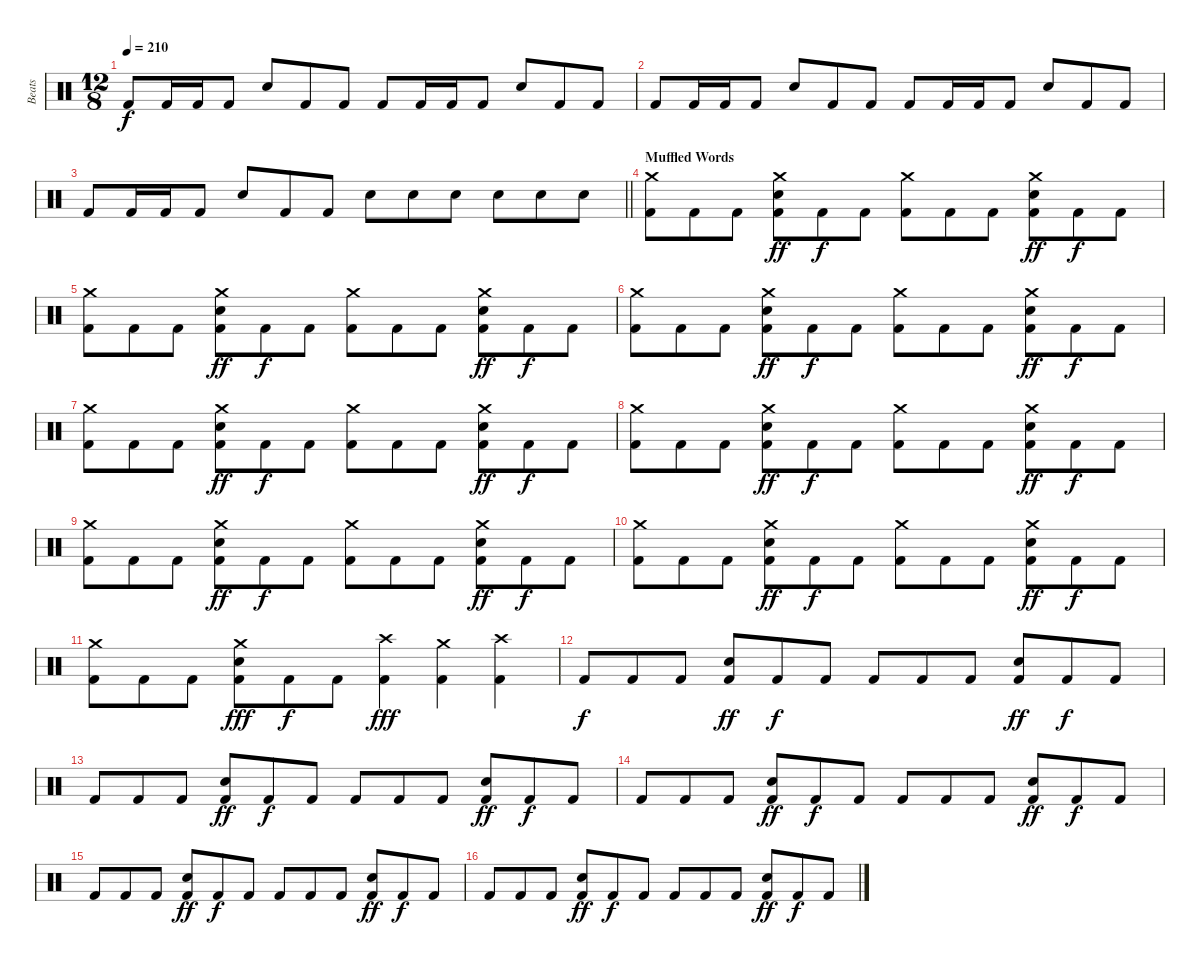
\track ("Beats" "Beats") {instrument percussion}
\staff {score}
\articulation defaults
\ts (12 8)
\tempo 210
\clef neutral
\ks c "Kick (hit) 2".8{dy f} "Kick (hit) 2".16 "Kick (hit) 2".16 "Kick (hit) 2".8 "Snare (hit) 2".8 "Kick (hit) 2".8 "Kick (hit) 2".8 "Kick (hit) 2".8 "Kick (hit) 2".16 "Kick (hit) 2".16 "Kick (hit) 2".8 "Snare (hit) 2".8 "Kick (hit) 2".8 "Kick (hit) 2".8
|
"Kick (hit) 2".8 "Kick (hit) 2".16 "Kick (hit) 2".16 "Kick (hit) 2".8 "Snare (hit) 2".8 "Kick (hit) 2".8 "Kick (hit) 2".8 "Kick (hit) 2".8 "Kick (hit) 2".16 "Kick (hit) 2".16 "Kick (hit) 2".8 "Snare (hit) 2".8 "Kick (hit) 2".8 "Kick (hit) 2".8 |
\barLineRight lightlight "Kick (hit) 2".8 "Kick (hit) 2".16 "Kick (hit) 2".16 "Kick (hit) 2".8 "Snare (hit) 2".8 "Kick (hit) 2".8 "Kick (hit) 2".8 "Snare (hit) 2".8 "Snare (hit) 2".8 "Snare (hit) 2".8 "Snare (hit) 2".8 "Snare (hit) 2".8 "Snare (hit) 2".8
|
\section ("" "Muffled Words")
("Crash medium (hit)" "Kick (hit) 2").8 "Kick (hit) 2".8 "Kick (hit) 2".8 ("Crash medium (hit)" "Snare (hit) 2" "Kick (hit) 2").8{dy ff} "Kick (hit) 2".8{dy f} "Kick (hit) 2".8 ("Crash medium (hit)" "Kick (hit) 2").8 "Kick (hit) 2".8 "Kick (hit) 2".8 ("Crash medium (hit)" "Snare (hit) 2" "Kick (hit) 2").8{dy ff} "Kick (hit) 2".8{dy f} "Kick (hit) 2".8 |
("Crash medium (hit)" "Kick (hit) 2").8 "Kick (hit) 2".8 "Kick (hit) 2".8 ("Crash medium (hit)" "Snare (hit) 2" "Kick (hit) 2").8{dy ff} "Kick (hit) 2".8{dy f} "Kick (hit) 2".8 ("Crash medium (hit)" "Kick (hit) 2").8 "Kick (hit) 2".8 "Kick (hit) 2".8 ("Crash medium (hit)" "Snare (hit) 2" "Kick (hit) 2").8{dy ff} "Kick (hit) 2".8{dy f} "Kick (hit) 2".8 |
("Crash medium (hit)" "Kick (hit) 2").8 "Kick (hit) 2".8 "Kick (hit) 2".8 ("Crash medium (hit)" "Snare (hit) 2" "Kick (hit) 2").8{dy ff} "Kick (hit) 2".8{dy f} "Kick (hit) 2".8 ("Crash medium (hit)" "Kick (hit) 2").8 "Kick (hit) 2".8 "Kick (hit) 2".8 ("Crash medium (hit)" "Snare (hit) 2" "Kick (hit) 2").8{dy ff} "Kick (hit) 2".8{dy f} "Kick (hit) 2".8 |
("Crash medium (hit)" "Kick (hit) 2").8 "Kick (hit) 2".8 "Kick (hit) 2".8 ("Crash medium (hit)" "Snare (hit) 2" "Kick (hit) 2").8{dy ff} "Kick (hit) 2".8{dy f} "Kick (hit) 2".8 ("Crash medium (hit)" "Kick (hit) 2").8 "Kick (hit) 2".8 "Kick (hit) 2".8 ("Crash medium (hit)" "Snare (hit) 2" "Kick (hit) 2").8{dy ff} "Kick (hit) 2".8{dy f} "Kick (hit) 2".8 |
("Crash medium (hit)" "Kick (hit) 2").8 "Kick (hit) 2".8 "Kick (hit) 2".8 ("Crash medium (hit)" "Snare (hit) 2" "Kick (hit) 2").8{dy ff} "Kick (hit) 2".8{dy f} "Kick (hit) 2".8 ("Crash medium (hit)" "Kick (hit) 2").8 "Kick (hit) 2".8 "Kick (hit) 2".8 ("Crash medium (hit)" "Snare (hit) 2" "Kick (hit) 2").8{dy ff} "Kick (hit) 2".8{dy f} "Kick (hit) 2".8 |
("Crash medium (hit)" "Kick (hit) 2").8 "Kick (hit) 2".8 "Kick (hit) 2".8 ("Crash medium (hit)" "Snare (hit) 2" "Kick (hit) 2").8{dy ff} "Kick (hit) 2".8{dy f} "Kick (hit) 2".8 ("Crash medium (hit)" "Kick (hit) 2").8 "Kick (hit) 2".8 "Kick (hit) 2".8 ("Crash medium (hit)" "Snare (hit) 2" "Kick (hit) 2").8{dy ff} "Kick (hit) 2".8{dy f} "Kick (hit) 2".8 |
("Crash medium (hit)" "Kick (hit) 2").8 "Kick (hit) 2".8 "Kick (hit) 2".8 ("Crash medium (hit)" "Snare (hit) 2" "Kick (hit) 2").8{dy ff} "Kick (hit) 2".8{dy f} "Kick (hit) 2".8 ("Crash medium (hit)" "Kick (hit) 2").8 "Kick (hit) 2".8 "Kick (hit) 2".8 ("Crash medium (hit)" "Snare (hit) 2" "Kick (hit) 2").8{dy ff} "Kick (hit) 2".8{dy f} "Kick (hit) 2".8 |
("Crash medium (hit)" "Kick (hit) 2").8 "Kick (hit) 2".8 "Kick (hit) 2".8 ("Crash medium (hit)" "Snare (hit) 2" "Kick (hit) 2").8{dy fff} "Kick (hit) 2".8{dy f} "Kick (hit) 2".8 ("Crash high (hit)" "Kick (hit) 2").4{dy fff} ("Crash medium (hit)" "Kick (hit) 2").4 ("Crash high (hit)" "Kick (hit) 2").4 |
"Kick (hit) 2".8{dy f} "Kick (hit) 2".8 "Kick (hit) 2".8 ("Snare (hit) 2" "Kick (hit) 2").8{dy ff} "Kick (hit) 2".8{dy f} "Kick (hit) 2".8 "Kick (hit) 2".8 "Kick (hit) 2".8 "Kick (hit) 2".8 ("Snare (hit) 2" "Kick (hit) 2").8{dy ff} "Kick (hit) 2".8{dy f} "Kick (hit) 2".8 |
"Kick (hit) 2".8 "Kick (hit) 2".8 "Kick (hit) 2".8 ("Snare (hit) 2" "Kick (hit) 2").8{dy ff} "Kick (hit) 2".8{dy f} "Kick (hit) 2".8 "Kick (hit) 2".8 "Kick (hit) 2".8 "Kick (hit) 2".8 ("Snare (hit) 2" "Kick (hit) 2").8{dy ff} "Kick (hit) 2".8{dy f} "Kick (hit) 2".8 |
"Kick (hit) 2".8 "Kick (hit) 2".8 "Kick (hit) 2".8 ("Snare (hit) 2" "Kick (hit) 2").8{dy ff} "Kick (hit) 2".8{dy f} "Kick (hit) 2".8 "Kick (hit) 2".8 "Kick (hit) 2".8 "Kick (hit) 2".8 ("Snare (hit) 2" "Kick (hit) 2").8{dy ff} "Kick (hit) 2".8{dy f} "Kick (hit) 2".8 |
"Kick (hit) 2".8 "Kick (hit) 2".8 "Kick (hit) 2".8 ("Snare (hit) 2" "Kick (hit) 2").8{dy ff} "Kick (hit) 2".8{dy f} "Kick (hit) 2".8 "Kick (hit) 2".8 "Kick (hit) 2".8 "Kick (hit) 2".8 ("Snare (hit) 2" "Kick (hit) 2").8{dy ff} "Kick (hit) 2".8{dy f} "Kick (hit) 2".8 |
"Kick (hit) 2".8 "Kick (hit) 2".8 "Kick (hit) 2".8 ("Snare (hit) 2" "Kick (hit) 2").8{dy ff} "Kick (hit) 2".8{dy f} "Kick (hit) 2".8 "Kick (hit) 2".8 "Kick (hit) 2".8 "Kick (hit) 2".8 ("Snare (hit) 2" "Kick (hit) 2").8{dy ff} "Kick (hit) 2".8{dy f} "Kick (hit) 2".8
